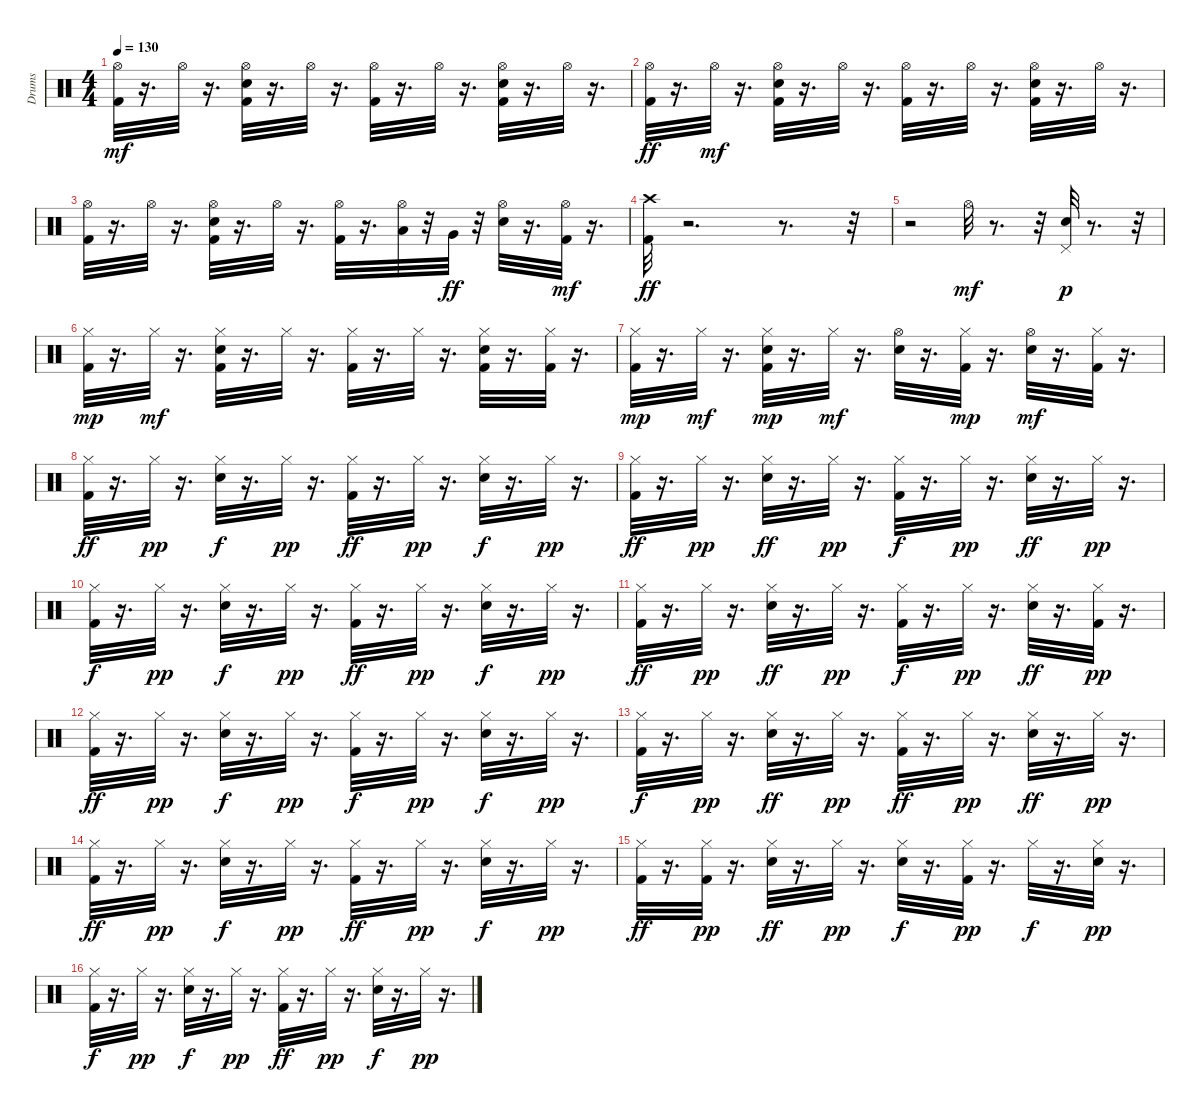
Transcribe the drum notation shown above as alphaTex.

\track ("Drums" "Drums") {instrument percussion}
\staff {score}
\articulation defaults
\ts (4 4)
\tempo 130
\clef neutral
\ks c
("Kick (hit) 2" "Hi-Hat (open)").32{dy mf} r.16{d} "Hi-Hat (open)".32 r.16{d} ("Kick (hit) 2" "Electric Snare (hit)" "Hi-Hat (open)").32 r.16{d} "Hi-Hat (open)".32 r.16{d} ("Kick (hit) 2" "Hi-Hat (open)").32 r.16{d} "Hi-Hat (open)".32 r.16{d} ("Kick (hit) 2" "Electric Snare (hit)" "Hi-Hat (open)").32 r.16{d} "Hi-Hat (open)".32 r.16{d} |
("Kick (hit) 2" "Hi-Hat (open)").32{dy ff} r.16{d} "Hi-Hat (open)".32{dy mf} r.16{d} ("Kick (hit) 2" "Electric Snare (hit)" "Hi-Hat (open)").32 r.16{d} "Hi-Hat (open)".32 r.16{d} ("Kick (hit) 2" "Hi-Hat (open)").32 r.16{d} "Hi-Hat (open)".32 r.16{d} ("Kick (hit) 2" "Electric Snare (hit)" "Hi-Hat (open)").32 r.16{d} "Hi-Hat (open)".32 r.16{d} |
("Kick (hit) 2" "Hi-Hat (open)").32 r.16{d} "Hi-Hat (open)".32 r.16{d} ("Kick (hit) 2" "Electric Snare (hit)" "Hi-Hat (open)").32 r.16{d} "Hi-Hat (open)".32 r.16{d} ("Kick (hit) 2" "Hi-Hat (open)").32 r.16{d} ("Low Tom (hit)" "Hi-Hat (open)").32 r.32 "Very Low Tom (hit)".32{dy ff} r.32 ("Electric Snare (hit)" "Hi-Hat (open)").32 r.16{d} ("Kick (hit) 2" "Hi-Hat (open)").32{dy mf} r.16{d} |
("Kick (hit) 2" "Crash high (hit)").32{dy ff} r.2{d} r.8{d} r.32 |
r.2 "Hi-Hat (open)".32{dy mf} r.8{d} r.32 ("Electric Snare (hit)" "Pedal Hi-Hat (hit)").32{dy p} r.8{d} r.32 |
("Kick (hit) 2" "Hi-Hat (closed)").32{dy mp} r.16{d} "Hi-Hat (closed)".32{dy mf} r.16{d} ("Kick (hit) 2" "Electric Snare (hit)" "Hi-Hat (closed)").32 r.16{d} "Hi-Hat (closed)".32 r.16{d} ("Kick (hit) 2" "Hi-Hat (closed)").32 r.16{d} "Hi-Hat (closed)".32 r.16{d} ("Kick (hit) 2" "Electric Snare (hit)" "Hi-Hat (closed)").32 r.16{d} ("Kick (hit) 2" "Hi-Hat (closed)").32 r.16{d} |
("Kick (hit) 2" "Hi-Hat (closed)").32{dy mp} r.16{d} "Hi-Hat (closed)".32{dy mf} r.16{d} ("Kick (hit) 2" "Electric Snare (hit)" "Hi-Hat (closed)").32{dy mp} r.16{d} "Hi-Hat (closed)".32{dy mf} r.16{d} ("Electric Snare (hit)" "Hi-Hat (open)").32 r.16{d} ("Kick (hit) 2" "Hi-Hat (closed)").32{dy mp} r.16{d} ("Electric Snare (hit)" "Hi-Hat (open)").32{dy mf} r.16{d} ("Kick (hit) 2" "Hi-Hat (closed)").32 r.16{d} |
("Kick (hit) 2" "Hi-Hat (closed)").32{dy ff} r.16{d} "Hi-Hat (closed)".32{dy pp} r.16{d} ("Electric Snare (hit)" "Hi-Hat (closed)").32{dy f} r.16{d} "Hi-Hat (closed)".32{dy pp} r.16{d} ("Kick (hit) 2" "Hi-Hat (closed)").32{dy ff} r.16{d} "Hi-Hat (closed)".32{dy pp} r.16{d} ("Electric Snare (hit)" "Hi-Hat (closed)").32{dy f} r.16{d} "Hi-Hat (closed)".32{dy pp} r.16{d} |
("Kick (hit) 2" "Hi-Hat (closed)").32{dy ff} r.16{d} "Hi-Hat (closed)".32{dy pp} r.16{d} ("Electric Snare (hit)" "Hi-Hat (closed)").32{dy ff} r.16{d} "Hi-Hat (closed)".32{dy pp} r.16{d} ("Kick (hit) 2" "Hi-Hat (closed)").32{dy f} r.16{d} "Hi-Hat (closed)".32{dy pp} r.16{d} ("Electric Snare (hit)" "Hi-Hat (closed)").32{dy ff} r.16{d} "Hi-Hat (closed)".32{dy pp} r.16{d} |
("Kick (hit) 2" "Hi-Hat (closed)").32{dy f} r.16{d} "Hi-Hat (closed)".32{dy pp} r.16{d} ("Electric Snare (hit)" "Hi-Hat (closed)").32{dy f} r.16{d} "Hi-Hat (closed)".32{dy pp} r.16{d} ("Kick (hit) 2" "Hi-Hat (closed)").32{dy ff} r.16{d} "Hi-Hat (closed)".32{dy pp} r.16{d} ("Electric Snare (hit)" "Hi-Hat (closed)").32{dy f} r.16{d} "Hi-Hat (closed)".32{dy pp} r.16{d} |
("Kick (hit) 2" "Hi-Hat (closed)").32{dy ff} r.16{d} "Hi-Hat (closed)".32{dy pp} r.16{d} ("Electric Snare (hit)" "Hi-Hat (closed)").32{dy ff} r.16{d} "Hi-Hat (closed)".32{dy pp} r.16{d} ("Kick (hit) 2" "Hi-Hat (closed)").32{dy f} r.16{d} "Hi-Hat (closed)".32{dy pp} r.16{d} ("Electric Snare (hit)" "Hi-Hat (closed)").32{dy ff} r.16{d} ("Kick (hit) 2" "Hi-Hat (closed)").32{dy pp} r.16{d} |
("Kick (hit) 2" "Hi-Hat (closed)").32{dy ff} r.16{d} "Hi-Hat (closed)".32{dy pp} r.16{d} ("Electric Snare (hit)" "Hi-Hat (closed)").32{dy f} r.16{d} "Hi-Hat (closed)".32{dy pp} r.16{d} ("Kick (hit) 2" "Hi-Hat (closed)").32{dy f} r.16{d} "Hi-Hat (closed)".32{dy pp} r.16{d} ("Electric Snare (hit)" "Hi-Hat (closed)").32{dy f} r.16{d} "Hi-Hat (closed)".32{dy pp} r.16{d} |
("Kick (hit) 2" "Hi-Hat (closed)").32{dy f} r.16{d} "Hi-Hat (closed)".32{dy pp} r.16{d} ("Electric Snare (hit)" "Hi-Hat (closed)").32{dy ff} r.16{d} "Hi-Hat (closed)".32{dy pp} r.16{d} ("Kick (hit) 2" "Hi-Hat (closed)").32{dy ff} r.16{d} "Hi-Hat (closed)".32{dy pp} r.16{d} ("Electric Snare (hit)" "Hi-Hat (closed)").32{dy ff} r.16{d} "Hi-Hat (closed)".32{dy pp} r.16{d} |
("Kick (hit) 2" "Hi-Hat (closed)").32{dy ff} r.16{d} "Hi-Hat (closed)".32{dy pp} r.16{d} ("Electric Snare (hit)" "Hi-Hat (closed)").32{dy f} r.16{d} "Hi-Hat (closed)".32{dy pp} r.16{d} ("Kick (hit) 2" "Hi-Hat (closed)").32{dy ff} r.16{d} "Hi-Hat (closed)".32{dy pp} r.16{d} ("Electric Snare (hit)" "Hi-Hat (closed)").32{dy f} r.16{d} "Hi-Hat (closed)".32{dy pp} r.16{d} |
("Kick (hit) 2" "Hi-Hat (closed)").32{dy ff} r.16{d} ("Kick (hit) 2" "Hi-Hat (closed)").32{dy pp} r.16{d} ("Electric Snare (hit)" "Hi-Hat (closed)").32{dy ff} r.16{d} "Hi-Hat (closed)".32{dy pp} r.16{d} ("Electric Snare (hit)" "Hi-Hat (closed)").32{dy f} r.16{d} ("Kick (hit) 2" "Hi-Hat (closed)").32{dy pp} r.16{d} "Hi-Hat (closed)".32{dy f} r.16{d} ("Electric Snare (hit)" "Hi-Hat (closed)").32{dy pp} r.16{d} |
("Kick (hit) 2" "Hi-Hat (closed)").32{dy f} r.16{d} "Hi-Hat (closed)".32{dy pp} r.16{d} ("Electric Snare (hit)" "Hi-Hat (closed)").32{dy f} r.16{d} "Hi-Hat (closed)".32{dy pp} r.16{d} ("Kick (hit) 2" "Hi-Hat (closed)").32{dy ff} r.16{d} "Hi-Hat (closed)".32{dy pp} r.16{d} ("Electric Snare (hit)" "Hi-Hat (closed)").32{dy f} r.16{d} "Hi-Hat (closed)".32{dy pp} r.16{d}
